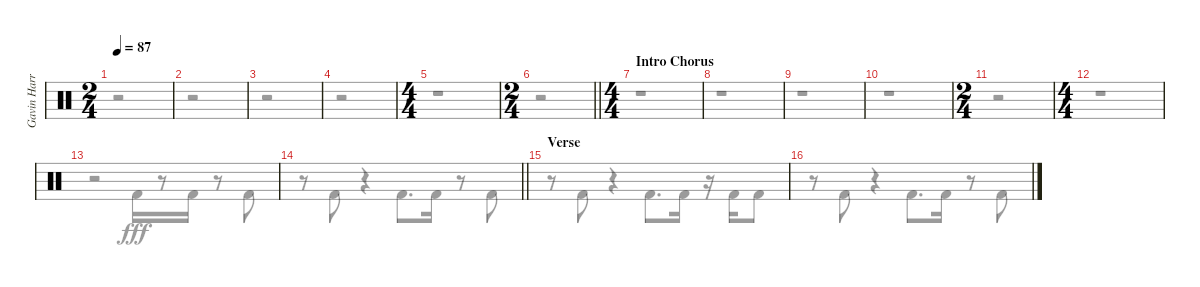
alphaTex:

\track ("Gavin Harrison Bass Pedal" "Gavin Harr") {instrument percussion}
\staff {score}
\articulation defaults
\voice
\ts (2 4)
\tempo 87
\clef neutral
\ks aminor
|
|
|
|
\ts (4 4)
|
\ts (2 4)
\barLineRight lightlight
|
\ts (4 4)
\section ("" "Intro Chorus")
|
|
|
|
\ts (2 4)
|
\ts (4 4)
|
|
\barLineRight lightlight
|
\section ("" "Verse")
|
\voice
\clef neutral
\ks aminor
r.2{dy fff} |
r.2 |
r.2 |
r.2 |
r.1 |
\barLineRight lightlight
r.2 |
r.1 |
r.1 |
r.1 |
r.1 |
r.2 |
r.1 |
r.2 "Kick (hit) 2".16 r.8 "Kick (hit) 2".16 r.8 "Kick (hit) 2".8 |
\barLineRight lightlight
r.8 "Kick (hit) 2".8 r.4 "Kick (hit) 2".8{d} "Kick (hit) 2".16 r.8 "Kick (hit) 2".8 |
r.8 "Kick (hit) 2".8 r.4 "Kick (hit) 2".8{d} "Kick (hit) 2".16 r.16 "Kick (hit) 2".16 "Kick (hit) 2".8 |
r.8 "Kick (hit) 2".8 r.4 "Kick (hit) 2".8{d} "Kick (hit) 2".16 r.8 "Kick (hit) 2".8
